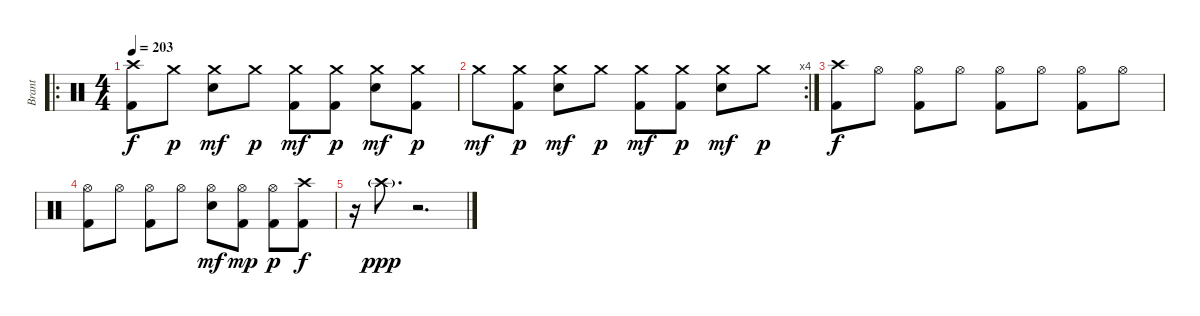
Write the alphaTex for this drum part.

\track ("Brant" "Brant") {instrument percussion}
\staff {score}
\articulation defaults
\ro
\ts (4 4)
\section ("" "")
\tempo 203
\clef neutral
\ks c
("Crash high (hit)" "Kick (hit) 2").8{dy f} "Crash medium (hit)".8{dy p} ("Crash medium (hit)" "Electric Snare (hit)").8{dy mf} "Crash medium (hit)".8{dy p} ("Crash medium (hit)" "Kick (hit) 2").8{dy mf} ("Crash medium (hit)" "Kick (hit) 2").8{dy p} ("Crash medium (hit)" "Electric Snare (hit)").8{dy mf} ("Crash medium (hit)" "Kick (hit) 2").8{dy p} |
\rc 4 "Crash medium (hit)".8{dy mf}
("Crash medium (hit)" "Kick (hit) 2").8{dy p} ("Crash medium (hit)" "Electric Snare (hit)").8{dy mf} "Crash medium (hit)".8{dy p} ("Crash medium (hit)" "Kick (hit) 2").8{dy mf} ("Crash medium (hit)" "Kick (hit) 2").8{dy p} ("Crash medium (hit)" "Electric Snare (hit)").8{dy mf} "Crash medium (hit)".8{dy p} |
("Crash high (hit)" "Kick (hit) 2").8{dy f} "Hi-Hat (open)".8 ("Hi-Hat (open)" "Kick (hit) 2").8 "Hi-Hat (open)".8 ("Hi-Hat (open)" "Kick (hit) 2").8 "Hi-Hat (open)".8 ("Hi-Hat (open)" "Kick (hit) 2").8 "Hi-Hat (open)".8 |
("Hi-Hat (open)" "Kick (hit) 2").8 "Hi-Hat (open)".8 ("Hi-Hat (open)" "Kick (hit) 2").8 "Hi-Hat (open)".8 ("Hi-Hat (open)" "Electric Snare (hit)").8{dy mf} ("Hi-Hat (open)" "Kick (hit) 2").8{dy mp} ("Hi-Hat (open)" "Kick (hit) 2").8{dy p} ("Crash high (hit)" "Kick (hit) 2").8{dy f} |
r.16 "Crash high (hit)"{g}.8{d dy ppp} r.2{d}
